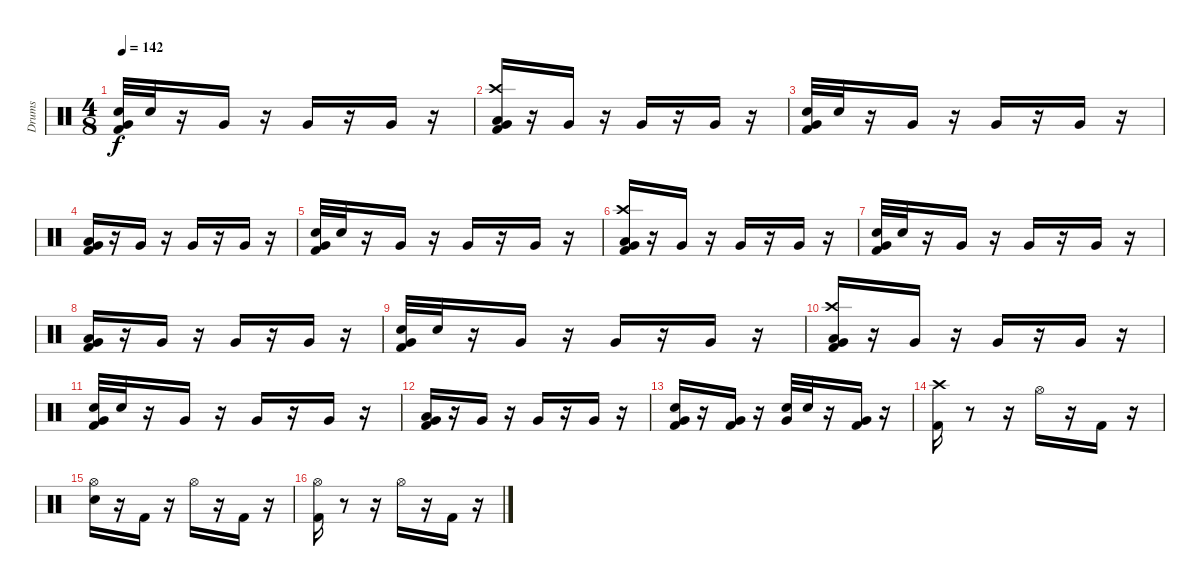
\track ("Drums" "Drums") {instrument percussion}
\staff {score}
\articulation defaults
\ts (4 8)
\tempo 142
\clef neutral
\ks c
("Electric Snare (hit)" "Kick (hit) 2" "Very Low Tom (hit)").32{dy f} "Electric Snare (hit)".32 r.16 "Very Low Tom (hit)".16 r.16 "Very Low Tom (hit)".16 r.16 "Very Low Tom (hit)".16 r.16 |
("Very Low Tom (hit)" "Kick (hit) 2" "Crash high (hit)" "Low Floor Tom (hit)").16 r.16 "Very Low Tom (hit)".16 r.16 "Very Low Tom (hit)".16 r.16 "Very Low Tom (hit)".16 r.16 |
("Electric Snare (hit)" "Kick (hit) 2" "Very Low Tom (hit)").32 "Electric Snare (hit)".32 r.16 "Very Low Tom (hit)".16 r.16 "Very Low Tom (hit)".16 r.16 "Very Low Tom (hit)".16 r.16 |
("Low Floor Tom (hit)" "Kick (hit) 2" "Very Low Tom (hit)").16 r.16 "Very Low Tom (hit)".16 r.16 "Very Low Tom (hit)".16 r.16 "Very Low Tom (hit)".16 r.16 |
("Electric Snare (hit)" "Kick (hit) 2" "Very Low Tom (hit)").32 "Electric Snare (hit)".32 r.16 "Very Low Tom (hit)".16 r.16 "Very Low Tom (hit)".16 r.16 "Very Low Tom (hit)".16 r.16 |
("Very Low Tom (hit)" "Kick (hit) 2" "Crash high (hit)" "Low Floor Tom (hit)").16 r.16 "Very Low Tom (hit)".16 r.16 "Very Low Tom (hit)".16 r.16 "Very Low Tom (hit)".16 r.16 |
("Electric Snare (hit)" "Kick (hit) 2" "Very Low Tom (hit)").32 "Electric Snare (hit)".32 r.16 "Very Low Tom (hit)".16 r.16 "Very Low Tom (hit)".16 r.16 "Very Low Tom (hit)".16 r.16 |
("Low Floor Tom (hit)" "Kick (hit) 2" "Very Low Tom (hit)").16 r.16 "Very Low Tom (hit)".16 r.16 "Very Low Tom (hit)".16 r.16 "Very Low Tom (hit)".16 r.16 |
("Electric Snare (hit)" "Kick (hit) 2" "Very Low Tom (hit)").32 "Electric Snare (hit)".32 r.16 "Very Low Tom (hit)".16 r.16 "Very Low Tom (hit)".16 r.16 "Very Low Tom (hit)".16 r.16 |
("Very Low Tom (hit)" "Kick (hit) 2" "Crash high (hit)" "Low Floor Tom (hit)").16 r.16 "Very Low Tom (hit)".16 r.16 "Very Low Tom (hit)".16 r.16 "Very Low Tom (hit)".16 r.16 |
("Electric Snare (hit)" "Kick (hit) 2" "Very Low Tom (hit)").32 "Electric Snare (hit)".32 r.16 "Very Low Tom (hit)".16 r.16 "Very Low Tom (hit)".16 r.16 "Very Low Tom (hit)".16 r.16 |
("Low Floor Tom (hit)" "Kick (hit) 2" "Very Low Tom (hit)").16 r.16 "Very Low Tom (hit)".16 r.16 "Very Low Tom (hit)".16 r.16 "Very Low Tom (hit)".16 r.16 |
("Electric Snare (hit)" "Kick (hit) 2" "Very Low Tom (hit)").16 r.16 ("Kick (hit) 2" "Very Low Tom (hit)").16 r.16 ("Very Low Tom (hit)" "Electric Snare (hit)").32 "Electric Snare (hit)".32 r.16 ("Kick (hit) 2" "Very Low Tom (hit)").16 r.16 |
("Kick (hit) 2" "Crash high (hit)").16 r.8 r.16 "Hi-Hat (open)".16 r.16 "Kick (hit) 2".16 r.16 |
("Electric Snare (hit)" "Hi-Hat (open)").16 r.16 "Kick (hit) 2".16 r.16 "Hi-Hat (open)".16 r.16 "Kick (hit) 2".16 r.16 |
("Kick (hit) 2" "Hi-Hat (open)").16 r.8 r.16 "Hi-Hat (open)".16 r.16 "Kick (hit) 2".16 r.16
